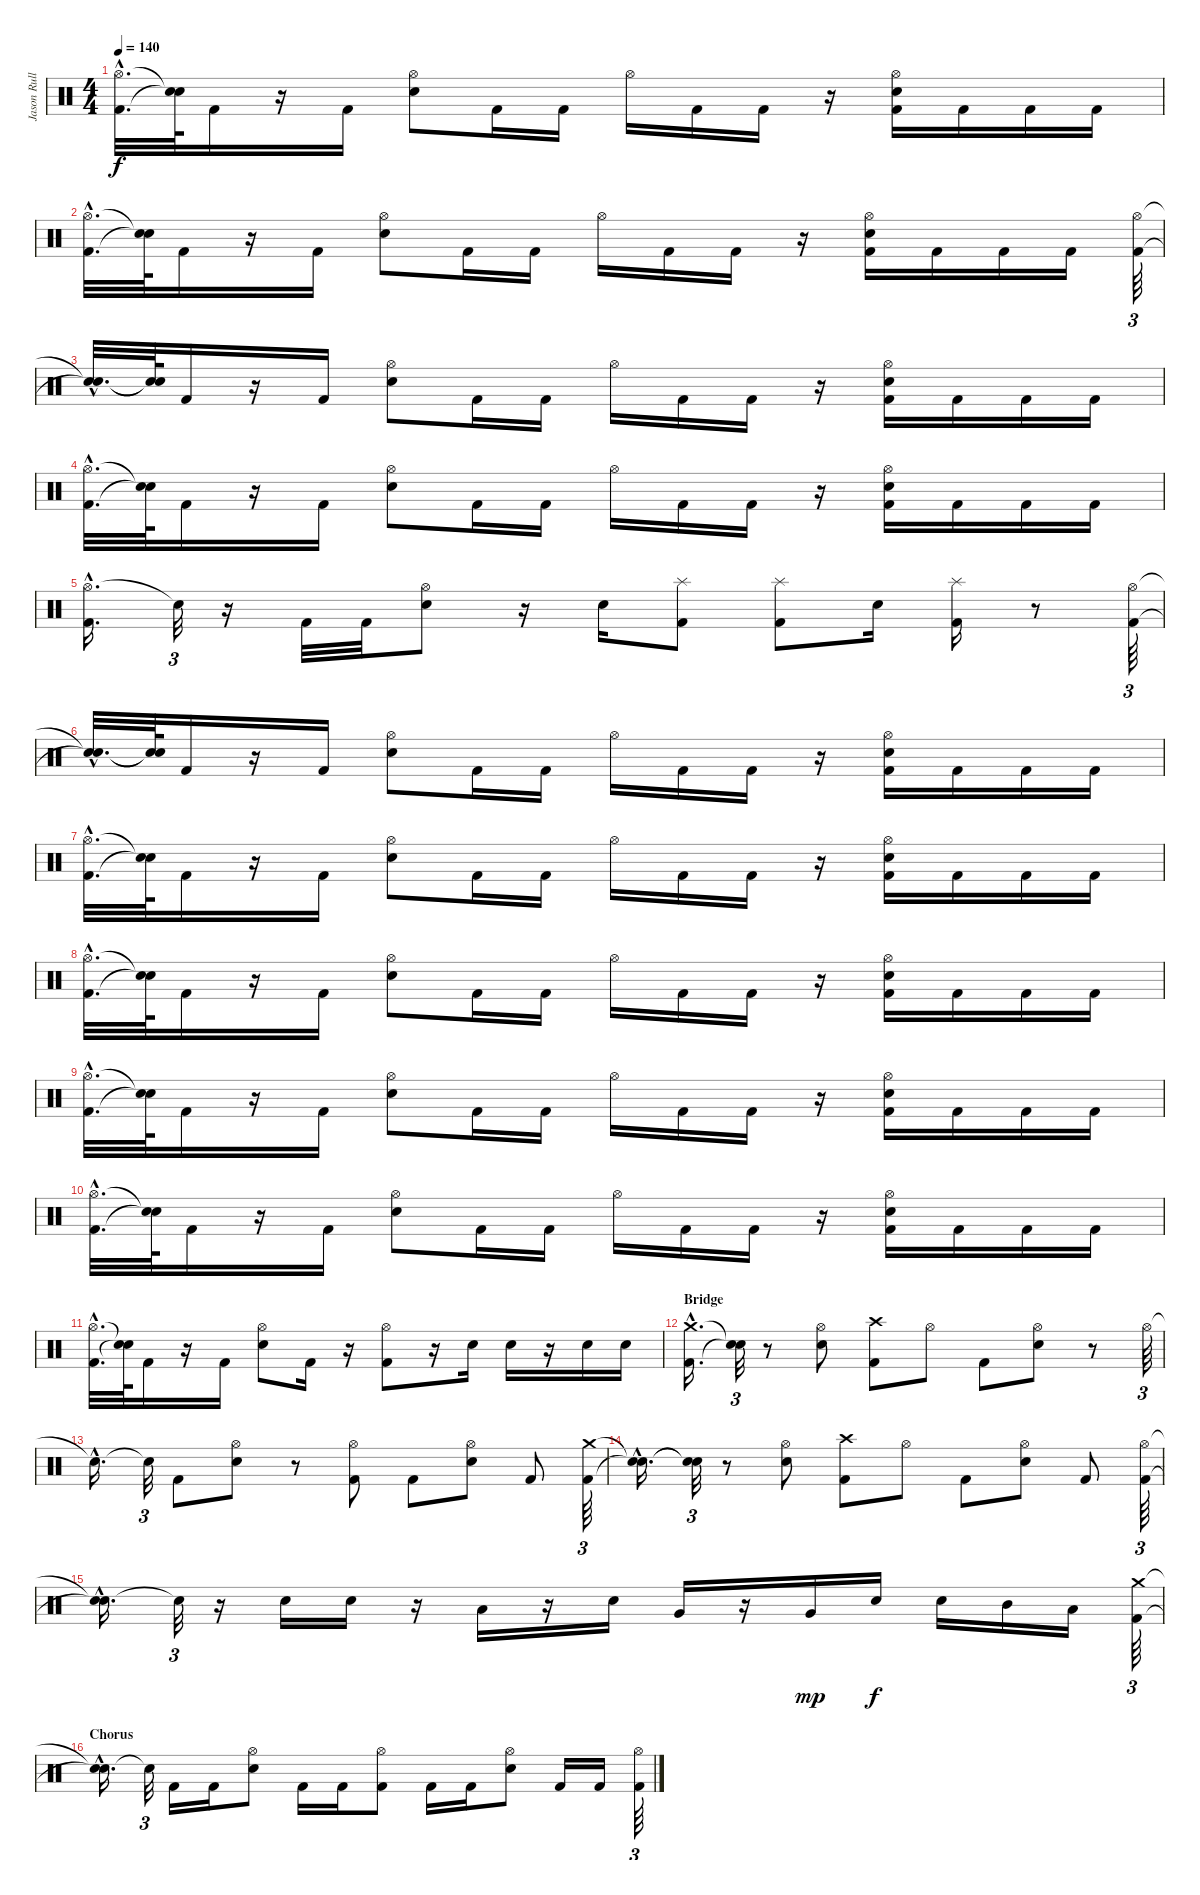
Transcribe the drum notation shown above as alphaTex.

\track ("Jason Rullo" "Jason Rull") {instrument percussion}
\staff {score}
\articulation defaults
\ts (4 4)
\tempo 140
\clef neutral
\ks c
("Hi-Hat (open)"{hac} "Kick (hit) 2"{hac}).32{d dy f} ("Snare (hit)"{t} "Snare (hit)"{t}).64 "Kick (hit) 2".16 r.16 "Kick (hit) 2".16 ("Hi-Hat (open)" "Electric Snare (hit)").8 "Kick (hit) 2".16 "Kick (hit) 2".16 "Hi-Hat (open)".16 "Kick (hit) 2".16 "Kick (hit) 2".16 r.16 ("Hi-Hat (open)" "Kick (hit) 2" "Electric Snare (hit)").16 "Kick (hit) 2".16 "Kick (hit) 2".16 "Kick (hit) 2".16 |
("Hi-Hat (open)"{hac} "Kick (hit) 2"{hac}).32{d} ("Snare (hit)"{t} "Snare (hit)"{t}).64 "Kick (hit) 2".16 r.16 "Kick (hit) 2".16 ("Hi-Hat (open)" "Electric Snare (hit)").8 "Kick (hit) 2".16 "Kick (hit) 2".16 "Hi-Hat (open)".16 "Kick (hit) 2".16 "Kick (hit) 2".16 r.16 ("Hi-Hat (open)" "Kick (hit) 2" "Electric Snare (hit)").16 "Kick (hit) 2".16 "Kick (hit) 2".16 "Kick (hit) 2".16 ("Hi-Hat (open)" "Kick (hit) 2").64{tu (3 2)} |
("Snare (hit)"{hac t} "Snare (hit)"{hac t}).32{d} ("Snare (hit)"{t} "Snare (hit)"{t}).64 "Kick (hit) 2".16 r.16 "Kick (hit) 2".16 ("Hi-Hat (open)" "Electric Snare (hit)").8 "Kick (hit) 2".16 "Kick (hit) 2".16 "Hi-Hat (open)".16 "Kick (hit) 2".16 "Kick (hit) 2".16 r.16 ("Hi-Hat (open)" "Kick (hit) 2" "Electric Snare (hit)").16 "Kick (hit) 2".16 "Kick (hit) 2".16 "Kick (hit) 2".16 |
("Hi-Hat (open)"{hac} "Kick (hit) 2"{hac}).32{d} ("Snare (hit)"{t} "Snare (hit)"{t}).64 "Kick (hit) 2".16 r.16 "Kick (hit) 2".16 ("Hi-Hat (open)" "Electric Snare (hit)").8 "Kick (hit) 2".16 "Kick (hit) 2".16 "Hi-Hat (open)".16 "Kick (hit) 2".16 "Kick (hit) 2".16 r.16 ("Hi-Hat (open)" "Kick (hit) 2" "Electric Snare (hit)").16 "Kick (hit) 2".16 "Kick (hit) 2".16 "Kick (hit) 2".16 |
("Hi-Hat (open)"{hac} "Kick (hit) 2"{hac}).16{d} "Snare (hit)"{t}.32{tu (3 2)} r.16 "Kick (hit) 2".32 "Kick (hit) 2".32 ("Hi-Hat (open)" "Electric Snare (hit)").8 r.16 "Electric Snare (hit)".16 ("Splash (hit)" "Kick (hit) 2").8 ("Splash (hit)" "Kick (hit) 2").8 "Electric Snare (hit)".16 ("Splash (hit)" "Kick (hit) 2").16 r.8 ("Hi-Hat (open)" "Kick (hit) 2").64{tu (3 2)} |
("Snare (hit)"{hac t} "Snare (hit)"{hac t}).32{d} ("Snare (hit)"{t} "Snare (hit)"{t}).64 "Kick (hit) 2".16 r.16 "Kick (hit) 2".16 ("Hi-Hat (open)" "Electric Snare (hit)").8 "Kick (hit) 2".16 "Kick (hit) 2".16 "Hi-Hat (open)".16 "Kick (hit) 2".16 "Kick (hit) 2".16 r.16 ("Hi-Hat (open)" "Kick (hit) 2" "Electric Snare (hit)").16 "Kick (hit) 2".16 "Kick (hit) 2".16 "Kick (hit) 2".16 |
("Hi-Hat (open)"{hac} "Kick (hit) 2"{hac}).32{d} ("Snare (hit)"{t} "Snare (hit)"{t}).64 "Kick (hit) 2".16 r.16 "Kick (hit) 2".16 ("Hi-Hat (open)" "Electric Snare (hit)").8 "Kick (hit) 2".16 "Kick (hit) 2".16 "Hi-Hat (open)".16 "Kick (hit) 2".16 "Kick (hit) 2".16 r.16 ("Hi-Hat (open)" "Kick (hit) 2" "Electric Snare (hit)").16 "Kick (hit) 2".16 "Kick (hit) 2".16 "Kick (hit) 2".16 |
("Hi-Hat (open)"{hac} "Kick (hit) 2"{hac}).32{d} ("Snare (hit)"{t} "Snare (hit)"{t}).64 "Kick (hit) 2".16 r.16 "Kick (hit) 2".16 ("Hi-Hat (open)" "Electric Snare (hit)").8 "Kick (hit) 2".16 "Kick (hit) 2".16 "Hi-Hat (open)".16 "Kick (hit) 2".16 "Kick (hit) 2".16 r.16 ("Hi-Hat (open)" "Kick (hit) 2" "Electric Snare (hit)").16 "Kick (hit) 2".16 "Kick (hit) 2".16 "Kick (hit) 2".16 |
("Hi-Hat (open)"{hac} "Kick (hit) 2"{hac}).32{d} ("Snare (hit)"{t} "Snare (hit)"{t}).64 "Kick (hit) 2".16 r.16 "Kick (hit) 2".16 ("Hi-Hat (open)" "Electric Snare (hit)").8 "Kick (hit) 2".16 "Kick (hit) 2".16 "Hi-Hat (open)".16 "Kick (hit) 2".16 "Kick (hit) 2".16 r.16 ("Hi-Hat (open)" "Kick (hit) 2" "Electric Snare (hit)").16 "Kick (hit) 2".16 "Kick (hit) 2".16 "Kick (hit) 2".16 |
("Hi-Hat (open)"{hac} "Kick (hit) 2"{hac}).32{d} ("Snare (hit)"{t} "Snare (hit)"{t}).64 "Kick (hit) 2".16 r.16 "Kick (hit) 2".16 ("Hi-Hat (open)" "Electric Snare (hit)").8 "Kick (hit) 2".16 "Kick (hit) 2".16 "Hi-Hat (open)".16 "Kick (hit) 2".16 "Kick (hit) 2".16 r.16 ("Hi-Hat (open)" "Kick (hit) 2" "Electric Snare (hit)").16 "Kick (hit) 2".16 "Kick (hit) 2".16 "Kick (hit) 2".16 |
("Hi-Hat (open)"{hac} "Kick (hit) 2"{hac}).32{d} ("Snare (hit)"{t} "Snare (hit)"{t}).64 "Kick (hit) 2".16 r.16 "Kick (hit) 2".16 ("Hi-Hat (open)" "Electric Snare (hit)").8 "Kick (hit) 2".16 r.16 ("Kick (hit) 2" "Hi-Hat (open)").8 r.16 "Electric Snare (hit)".16 "Electric Snare (hit)".16 r.16 "Electric Snare (hit)".16 "Electric Snare (hit)".16 |
\section ("" "Bridge")
("Crash medium (hit)"{hac} "Kick (hit) 2"{hac}).16{d} ("Snare (hit)"{t} "Snare (hit)"{t}).32{tu (3 2)} r.8 ("Electric Snare (hit)" "Hi-Hat (open)").8 ("Kick (hit) 2" "Crash high (hit)").8 "Hi-Hat (open)".8 "Kick (hit) 2".8 ("Hi-Hat (open)" "Electric Snare (hit)").8 r.8 "Hi-Hat (open)".64{tu (3 2)} |
"Snare (hit)"{hac t}.16{d} "Snare (hit)"{t}.32{tu (3 2)} "Kick (hit) 2".8 ("Hi-Hat (open)" "Electric Snare (hit)").8 r.8 ("Hi-Hat (open)" "Kick (hit) 2").8 "Kick (hit) 2".8 ("Hi-Hat (open)" "Electric Snare (hit)").8 "Kick (hit) 2".8 ("Kick (hit) 2" "Crash medium (hit)").64{tu (3 2)} |
("Snare (hit)"{hac t} "Snare (hit)"{hac t}).16{d} ("Snare (hit)"{t} "Snare (hit)"{t}).32{tu (3 2)} r.8 ("Electric Snare (hit)" "Hi-Hat (open)").8 ("Kick (hit) 2" "Crash high (hit)").8 "Hi-Hat (open)".8 "Kick (hit) 2".8 ("Hi-Hat (open)" "Electric Snare (hit)").8 "Kick (hit) 2".8 ("Kick (hit) 2" "Hi-Hat (open)").64{tu (3 2)} |
("Snare (hit)"{hac t} "Snare (hit)"{hac t}).16{d} "Snare (hit)"{t}.32{tu (3 2)} r.16 "Electric Snare (hit)".16 "Electric Snare (hit)".16 r.16 "Low Tom (hit)".16 r.16 "Electric Snare (hit)".16 "Very Low Tom (hit)".16 r.16 "Very Low Tom (hit)".16{dy mp} "Electric Snare (hit)".16{dy f} "Electric Snare (hit)".16 "Mid Tom (hit)".16 "Low Tom (hit)".16 ("Crash medium (hit)" "Kick (hit) 2").64{tu (3 2)} |
\section ("" "Chorus")
("Snare (hit)"{hac t} "Snare (hit)"{hac t}).16{d} "Snare (hit)"{t}.32{tu (3 2)} "Kick (hit) 2".16 "Kick (hit) 2".16 ("Hi-Hat (open)" "Electric Snare (hit)").8 "Kick (hit) 2".16 "Kick (hit) 2".16 ("Hi-Hat (open)" "Kick (hit) 2").8 "Kick (hit) 2".16 "Kick (hit) 2".16 ("Hi-Hat (open)" "Electric Snare (hit)").8 "Kick (hit) 2".16 "Kick (hit) 2".16 ("Hi-Hat (open)" "Kick (hit) 2").64{tu (3 2)}
